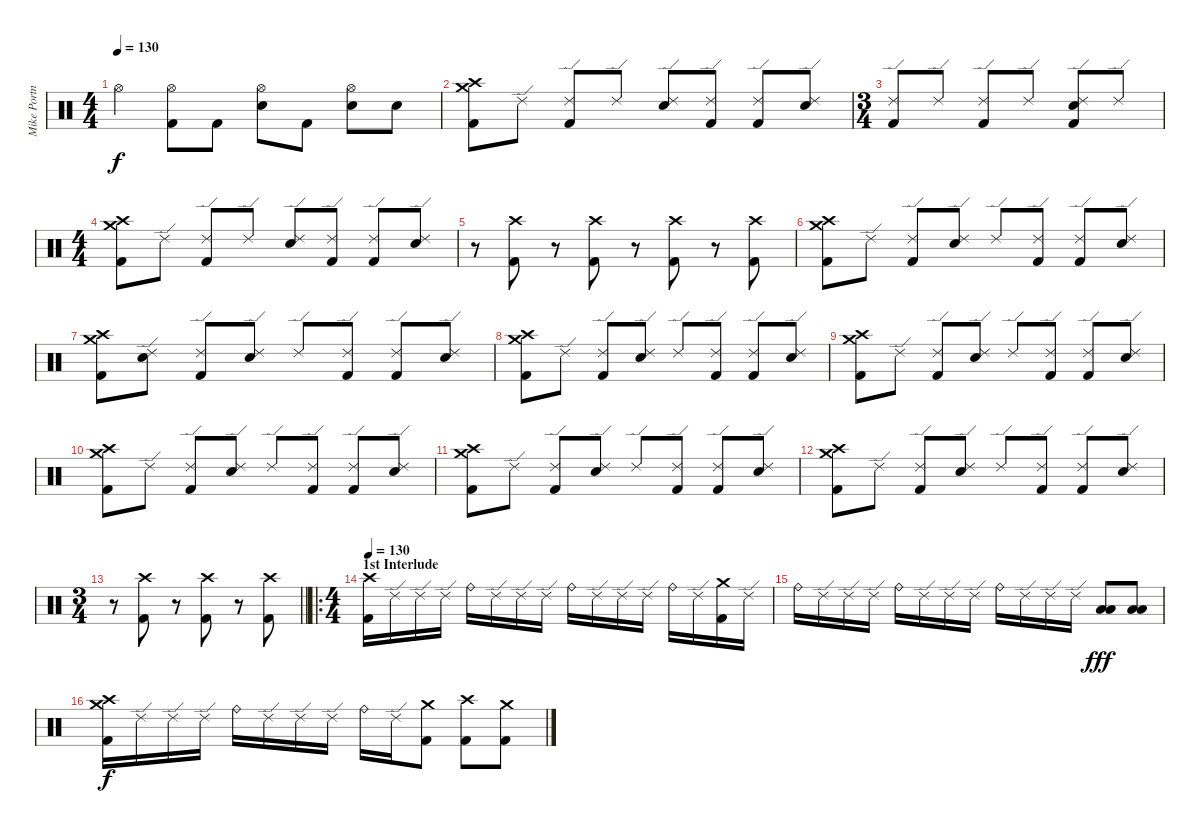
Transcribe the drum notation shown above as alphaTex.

\track ("Mike Portnoy" "Mike Portn") {instrument percussion}
\staff {score}
\articulation defaults
\ts (4 4)
\tempo 130
\clef neutral
\ks c "Hi-Hat (open)".4{dy f}
("Hi-Hat (open)" "Kick (hit) 2").8 "Kick (hit) 2".8 ("Hi-Hat (open)" "Electric Snare (hit)").8 "Kick (hit) 2".8 ("Hi-Hat (open)" "Electric Snare (hit)").8 "Electric Snare (hit)".8 |
("Crash high (hit)" "Crash medium (hit)" "Kick (hit) 2").8 "Ride (edge) 2".8 ("Ride (edge) 2" "Kick (hit) 2").8 "Ride (edge) 2".8 ("Ride (edge) 2" "Snare (hit) 2").8 ("Ride (edge) 2" "Kick (hit) 2").8 ("Ride (edge) 2" "Kick (hit) 2").8 ("Ride (edge) 2" "Snare (hit) 2").8 |
\ts (3 4)
("Ride (edge) 2" "Kick (hit) 2").8 "Ride (edge) 2".8 ("Ride (edge) 2" "Kick (hit) 2").8 "Ride (edge) 2".8 ("Ride (edge) 2" "Snare (hit) 2" "Kick (hit) 2").8 "Ride (edge) 2".8 |
\ts (4 4)
("Crash high (hit)" "Crash medium (hit)" "Kick (hit) 2").8 "Ride (edge) 2".8 ("Ride (edge) 2" "Kick (hit) 2").8 "Ride (edge) 2".8 ("Ride (edge) 2" "Snare (hit) 2").8 ("Ride (edge) 2" "Kick (hit) 2").8 ("Ride (edge) 2" "Kick (hit) 2").8 ("Ride (edge) 2" "Snare (hit) 2").8 |
r.8{volume 0} ("Crash high (hit)" "Kick (hit) 2").8{volume 16} r.8{volume 0} ("Crash high (hit)" "Kick (hit) 2").8{volume 16} r.8{volume 0} ("Crash high (hit)" "Kick (hit) 2").8{volume 16} r.8{volume 0} ("Crash high (hit)" "Kick (hit) 2").8{volume 16} |
("Crash high (hit)" "Crash medium (hit)" "Kick (hit) 2").8 "Ride (edge) 2".8 ("Ride (edge) 2" "Kick (hit) 2").8 ("Ride (edge) 2" "Snare (hit) 2").8 "Ride (edge) 2".8 ("Ride (edge) 2" "Kick (hit) 2").8 ("Ride (edge) 2" "Kick (hit) 2").8 ("Ride (edge) 2" "Snare (hit) 2").8 |
("Crash high (hit)" "Crash medium (hit)" "Kick (hit) 2").8 ("Ride (edge) 2" "Snare (hit) 2").8 ("Ride (edge) 2" "Kick (hit) 2").8 ("Ride (edge) 2" "Snare (hit) 2").8 "Ride (edge) 2".8 ("Ride (edge) 2" "Kick (hit) 2").8 ("Ride (edge) 2" "Kick (hit) 2").8 ("Ride (edge) 2" "Snare (hit) 2").8 |
("Crash high (hit)" "Crash medium (hit)" "Kick (hit) 2").8 "Ride (edge) 2".8 ("Ride (edge) 2" "Kick (hit) 2").8 ("Ride (edge) 2" "Snare (hit) 2").8 "Ride (edge) 2".8 ("Ride (edge) 2" "Kick (hit) 2").8 ("Ride (edge) 2" "Kick (hit) 2").8 ("Ride (edge) 2" "Snare (hit) 2").8 |
("Crash high (hit)" "Crash medium (hit)" "Kick (hit) 2").8 "Ride (edge) 2".8 ("Ride (edge) 2" "Kick (hit) 2").8 ("Ride (edge) 2" "Snare (hit) 2").8 "Ride (edge) 2".8 ("Ride (edge) 2" "Kick (hit) 2").8 ("Ride (edge) 2" "Kick (hit) 2").8 ("Ride (edge) 2" "Snare (hit) 2").8 |
("Crash high (hit)" "Crash medium (hit)" "Kick (hit) 2").8 "Ride (edge) 2".8 ("Ride (edge) 2" "Kick (hit) 2").8 ("Ride (edge) 2" "Snare (hit) 2").8 "Ride (edge) 2".8 ("Ride (edge) 2" "Kick (hit) 2").8 ("Ride (edge) 2" "Kick (hit) 2").8 ("Ride (edge) 2" "Snare (hit) 2").8 |
("Crash high (hit)" "Crash medium (hit)" "Kick (hit) 2").8 "Ride (edge) 2".8 ("Ride (edge) 2" "Kick (hit) 2").8 ("Ride (edge) 2" "Snare (hit) 2").8 "Ride (edge) 2".8 ("Ride (edge) 2" "Kick (hit) 2").8 ("Ride (edge) 2" "Kick (hit) 2").8 ("Ride (edge) 2" "Snare (hit) 2").8 |
("Crash high (hit)" "Crash medium (hit)" "Kick (hit) 2").8 "Ride (edge) 2".8 ("Ride (edge) 2" "Kick (hit) 2").8 ("Ride (edge) 2" "Snare (hit) 2").8 "Ride (edge) 2".8 ("Ride (edge) 2" "Kick (hit) 2").8 ("Ride (edge) 2" "Kick (hit) 2").8 ("Ride (edge) 2" "Snare (hit) 2").8 |
\ts (3 4)
\barLineRight lightlight
r.8{volume 0} ("Crash high (hit)" "Kick (hit) 2").8{volume 16} r.8{volume 0} ("Crash high (hit)" "Kick (hit) 2").8{volume 16} r.8{volume 0} ("Crash high (hit)" "Kick (hit) 2").8{volume 16} |
\ro
\ts (4 4)
\section ("" "1st Interlude")
\tempo 130
("Crash high (hit)" "Kick (hit) 2").16 "Ride (edge) 2".16 "Ride (edge) 2".16 "Ride (edge) 2".16 "Ride (bell)".16 "Ride (edge) 2".16 "Ride (edge) 2".16 "Ride (edge) 2".16 "Ride (bell)".16 "Ride (edge) 2".16 "Ride (edge) 2".16 "Ride (edge) 2".16 "Ride (bell)".16 "Ride (edge) 2".16 ("Crash medium (hit)" "Kick (hit) 2").16 "Ride (edge) 2".16 |
"Ride (bell)".16 "Ride (edge) 2".16 "Ride (edge) 2".16 "Ride (edge) 2".16 "Ride (bell)".16 "Ride (edge) 2".16 "Ride (edge) 2".16 "Ride (edge) 2".16 "Ride (bell)".16 "Ride (edge) 2".16 "Ride (edge) 2".16 "Ride (edge) 2".16 ("Low Tom (hit)" "Low Floor Tom (hit)").8{dy fff} ("Low Tom (hit)" "Low Floor Tom (hit)").8 |
("Crash medium (hit)" "Crash high (hit)" "Kick (hit) 2").16{dy f} "Ride (edge) 2".16 "Ride (edge) 2".16 "Ride (edge) 2".16 "Ride (bell)".16 "Ride (edge) 2".16 "Ride (edge) 2".16 "Ride (edge) 2".16 "Ride (bell)".16 "Ride (edge) 2".16 ("Crash medium (hit)" "Kick (hit) 2").8 ("Crash high (hit)" "Kick (hit) 2").8 ("Crash medium (hit)" "Kick (hit) 2").8
